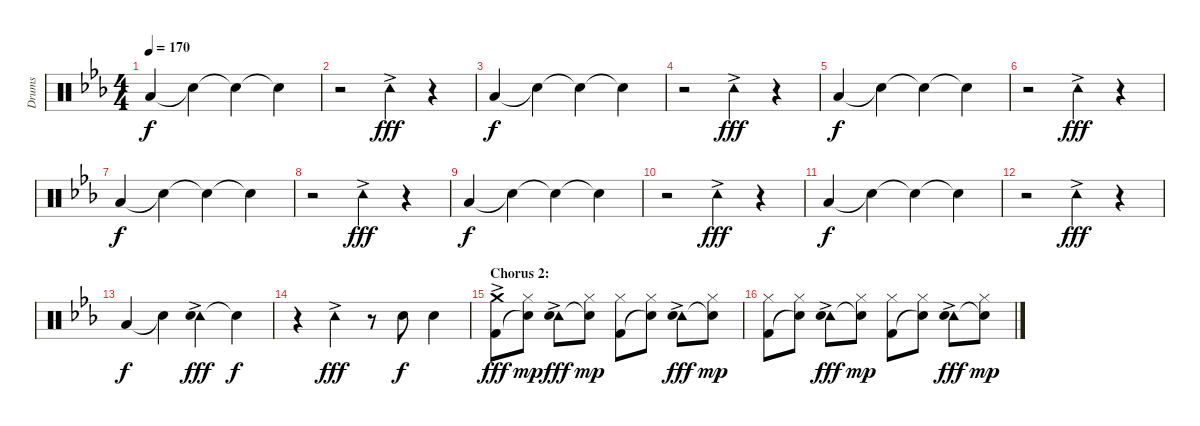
\track ("Drums" "Drums") {instrument percussion}
\staff {score}
\articulation defaults
\ts (4 4)
\tempo 170
\clef neutral
\ks cminor "Low Floor Tom (hit)".4{dy f} "Snare (hit)"{t}.4 "Snare (hit)"{t}.4 "Snare (hit)"{t}.4
|
r.2 "Tambourine (hit)"{ac}.4{dy fff} r.4 |
"Low Floor Tom (hit)".4{dy f} "Snare (hit)"{t}.4 "Snare (hit)"{t}.4 "Snare (hit)"{t}.4 |
r.2 "Tambourine (hit)"{ac}.4{dy fff} r.4 |
"Low Floor Tom (hit)".4{dy f} "Snare (hit)"{t}.4 "Snare (hit)"{t}.4 "Snare (hit)"{t}.4 |
r.2 "Tambourine (hit)"{ac}.4{dy fff} r.4 |
"Low Floor Tom (hit)".4{dy f} "Snare (hit)"{t}.4 "Snare (hit)"{t}.4 "Snare (hit)"{t}.4 |
r.2 "Tambourine (hit)"{ac}.4{dy fff} r.4 |
"Low Floor Tom (hit)".4{dy f} "Snare (hit)"{t}.4 "Snare (hit)"{t}.4 "Snare (hit)"{t}.4 |
r.2 "Tambourine (hit)"{ac}.4{dy fff} r.4 |
"Low Floor Tom (hit)".4{dy f} "Snare (hit)"{t}.4 "Snare (hit)"{t}.4 "Snare (hit)"{t}.4 |
r.2 "Tambourine (hit)"{ac}.4{dy fff} r.4 |
"Low Floor Tom (hit)".4{dy f} "Snare (hit)"{t}.4 ("Tambourine (hit)"{ac} "Snare (hit)").4{dy fff} "Snare (hit)"{t}.4{dy f} |
r.4 "Tambourine (hit)"{ac}.4{dy fff} r.8 "Snare (hit) 2".8{dy f} "Snare (hit) 2".4 |
\section ("" "Chorus 2:")
("Crash medium (hit)"{ac} "Kick (hit) 2").8{dy fff} ("Hi-Hat (closed)" "Snare (hit)"{t}).8{dy mp} ("Tambourine (hit)"{ac} "Hand Clap (hit)").8{dy fff} ("Hi-Hat (closed)" "Snare (hit)"{t}).8{dy mp} ("Hi-Hat (closed)" "Kick (hit) 2").8 ("Hi-Hat (closed)" "Snare (hit)"{t}).8 ("Tambourine (hit)"{ac} "Hand Clap (hit)").8{dy fff} ("Hi-Hat (closed)" "Snare (hit)"{t}).8{dy mp} |
("Hi-Hat (closed)" "Kick (hit) 2").8 ("Hi-Hat (closed)" "Snare (hit)"{t}).8 ("Tambourine (hit)"{ac} "Hand Clap (hit)").8{dy fff} ("Hi-Hat (closed)" "Snare (hit)"{t}).8{dy mp} ("Hi-Hat (closed)" "Kick (hit) 2").8 ("Hi-Hat (closed)" "Snare (hit)"{t}).8 ("Tambourine (hit)"{ac} "Hand Clap (hit)").8{dy fff} ("Hi-Hat (closed)" "Snare (hit)"{t}).8{dy mp}
